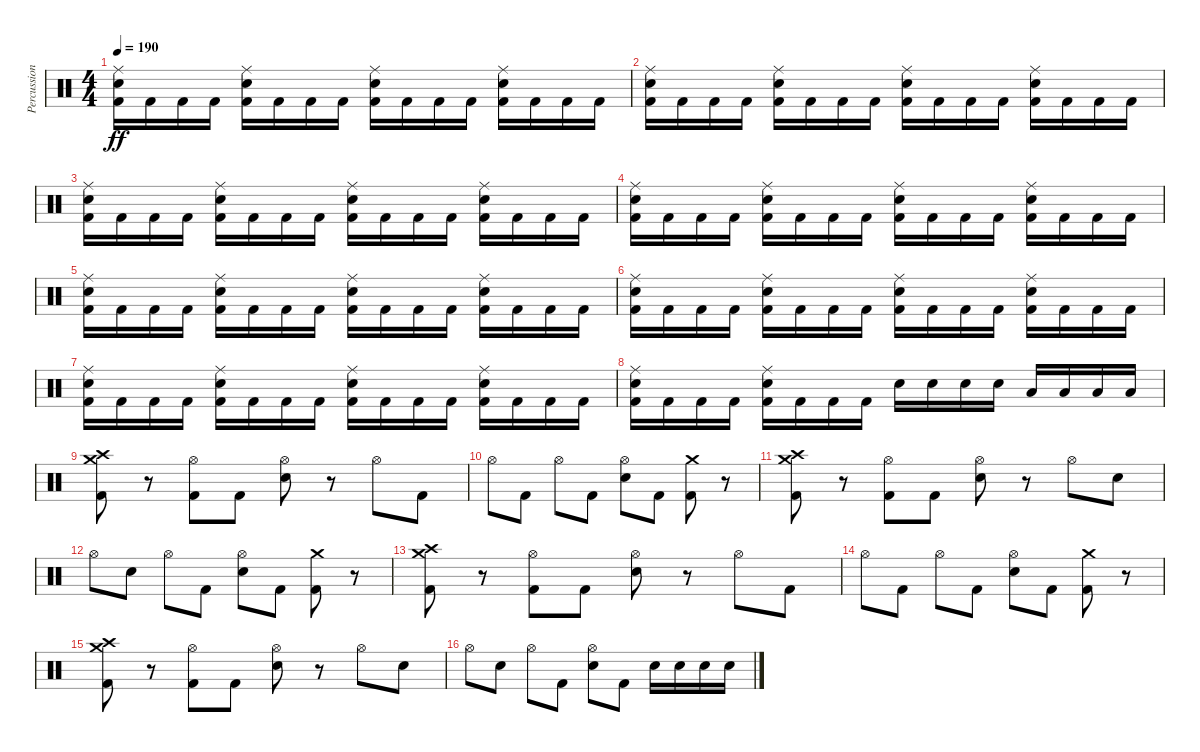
\track ("Percussion" "Percussion") {instrument percussion}
\staff {score}
\articulation defaults
\ts (4 4)
\tempo 190
\clef neutral
\ks c
("Kick (hit) 2" "Electric Snare (hit)" "Ride (middle)").16{dy ff} "Kick (hit) 2".16 "Kick (hit) 2".16 "Kick (hit) 2".16 ("Kick (hit) 2" "Electric Snare (hit)" "Ride (middle)").16 "Kick (hit) 2".16 "Kick (hit) 2".16 "Kick (hit) 2".16 ("Kick (hit) 2" "Electric Snare (hit)" "Ride (middle)").16 "Kick (hit) 2".16 "Kick (hit) 2".16 "Kick (hit) 2".16 ("Kick (hit) 2" "Electric Snare (hit)" "Ride (middle)").16 "Kick (hit) 2".16 "Kick (hit) 2".16 "Kick (hit) 2".16 |
("Kick (hit) 2" "Electric Snare (hit)" "Ride (middle)").16 "Kick (hit) 2".16 "Kick (hit) 2".16 "Kick (hit) 2".16 ("Kick (hit) 2" "Electric Snare (hit)" "Ride (middle)").16 "Kick (hit) 2".16 "Kick (hit) 2".16 "Kick (hit) 2".16 ("Kick (hit) 2" "Electric Snare (hit)" "Ride (middle)").16 "Kick (hit) 2".16 "Kick (hit) 2".16 "Kick (hit) 2".16 ("Kick (hit) 2" "Electric Snare (hit)" "Ride (middle)").16 "Kick (hit) 2".16 "Kick (hit) 2".16 "Kick (hit) 2".16 |
("Kick (hit) 2" "Electric Snare (hit)" "Ride (middle)").16 "Kick (hit) 2".16 "Kick (hit) 2".16 "Kick (hit) 2".16 ("Kick (hit) 2" "Electric Snare (hit)" "Ride (middle)").16 "Kick (hit) 2".16 "Kick (hit) 2".16 "Kick (hit) 2".16 ("Kick (hit) 2" "Electric Snare (hit)" "Ride (middle)").16 "Kick (hit) 2".16 "Kick (hit) 2".16 "Kick (hit) 2".16 ("Kick (hit) 2" "Electric Snare (hit)" "Ride (middle)").16 "Kick (hit) 2".16 "Kick (hit) 2".16 "Kick (hit) 2".16 |
("Kick (hit) 2" "Electric Snare (hit)" "Ride (middle)").16 "Kick (hit) 2".16 "Kick (hit) 2".16 "Kick (hit) 2".16 ("Kick (hit) 2" "Electric Snare (hit)" "Ride (middle)").16 "Kick (hit) 2".16 "Kick (hit) 2".16 "Kick (hit) 2".16 ("Kick (hit) 2" "Electric Snare (hit)" "Ride (middle)").16 "Kick (hit) 2".16 "Kick (hit) 2".16 "Kick (hit) 2".16 ("Kick (hit) 2" "Electric Snare (hit)" "Ride (middle)").16 "Kick (hit) 2".16 "Kick (hit) 2".16 "Kick (hit) 2".16 |
("Kick (hit) 2" "Electric Snare (hit)" "Ride (middle)").16 "Kick (hit) 2".16 "Kick (hit) 2".16 "Kick (hit) 2".16 ("Kick (hit) 2" "Electric Snare (hit)" "Ride (middle)").16 "Kick (hit) 2".16 "Kick (hit) 2".16 "Kick (hit) 2".16 ("Kick (hit) 2" "Electric Snare (hit)" "Ride (middle)").16 "Kick (hit) 2".16 "Kick (hit) 2".16 "Kick (hit) 2".16 ("Kick (hit) 2" "Electric Snare (hit)" "Ride (middle)").16 "Kick (hit) 2".16 "Kick (hit) 2".16 "Kick (hit) 2".16 |
("Kick (hit) 2" "Electric Snare (hit)" "Ride (middle)").16 "Kick (hit) 2".16 "Kick (hit) 2".16 "Kick (hit) 2".16 ("Kick (hit) 2" "Electric Snare (hit)" "Ride (middle)").16 "Kick (hit) 2".16 "Kick (hit) 2".16 "Kick (hit) 2".16 ("Kick (hit) 2" "Electric Snare (hit)" "Ride (middle)").16 "Kick (hit) 2".16 "Kick (hit) 2".16 "Kick (hit) 2".16 ("Kick (hit) 2" "Electric Snare (hit)" "Ride (middle)").16 "Kick (hit) 2".16 "Kick (hit) 2".16 "Kick (hit) 2".16 |
("Kick (hit) 2" "Electric Snare (hit)" "Ride (middle)").16 "Kick (hit) 2".16 "Kick (hit) 2".16 "Kick (hit) 2".16 ("Kick (hit) 2" "Electric Snare (hit)" "Ride (middle)").16 "Kick (hit) 2".16 "Kick (hit) 2".16 "Kick (hit) 2".16 ("Kick (hit) 2" "Electric Snare (hit)" "Ride (middle)").16 "Kick (hit) 2".16 "Kick (hit) 2".16 "Kick (hit) 2".16 ("Kick (hit) 2" "Electric Snare (hit)" "Ride (middle)").16 "Kick (hit) 2".16 "Kick (hit) 2".16 "Kick (hit) 2".16 |
("Kick (hit) 2" "Electric Snare (hit)" "Ride (middle)").16 "Kick (hit) 2".16 "Kick (hit) 2".16 "Kick (hit) 2".16 ("Kick (hit) 2" "Electric Snare (hit)" "Ride (middle)").16 "Kick (hit) 2".16 "Kick (hit) 2".16 "Kick (hit) 2".16 "Electric Snare (hit)".16 "Electric Snare (hit)".16 "Electric Snare (hit)".16 "Electric Snare (hit)".16 "Low Tom (hit)".16 "Low Tom (hit)".16 "Low Tom (hit)".16 "Low Tom (hit)".16 |
("Kick (hit) 2" "Crash high (hit)" "Crash medium (hit)").8 r.8 ("Kick (hit) 2" "Hi-Hat (open)").8 "Kick (hit) 2".8 ("Electric Snare (hit)" "Hi-Hat (open)").8 r.8 "Hi-Hat (open)".8 "Kick (hit) 2".8 |
"Hi-Hat (open)".8 "Kick (hit) 2".8 "Hi-Hat (open)".8 "Kick (hit) 2".8 ("Electric Snare (hit)" "Hi-Hat (open)").8 "Kick (hit) 2".8 ("Kick (hit) 2" "Crash medium (hit)").8 r.8 |
("Kick (hit) 2" "Crash high (hit)" "Crash medium (hit)").8 r.8 ("Kick (hit) 2" "Hi-Hat (open)").8 "Kick (hit) 2".8 ("Electric Snare (hit)" "Hi-Hat (open)").8 r.8 "Hi-Hat (open)".8 "Electric Snare (hit)".8 |
"Hi-Hat (open)".8 "Electric Snare (hit)".8 "Hi-Hat (open)".8 "Kick (hit) 2".8 ("Electric Snare (hit)" "Hi-Hat (open)").8 "Kick (hit) 2".8 ("Kick (hit) 2" "Crash medium (hit)").8 r.8 |
("Kick (hit) 2" "Crash high (hit)" "Crash medium (hit)").8 r.8 ("Kick (hit) 2" "Hi-Hat (open)").8 "Kick (hit) 2".8 ("Electric Snare (hit)" "Hi-Hat (open)").8 r.8 "Hi-Hat (open)".8 "Kick (hit) 2".8 |
"Hi-Hat (open)".8 "Kick (hit) 2".8 "Hi-Hat (open)".8 "Kick (hit) 2".8 ("Electric Snare (hit)" "Hi-Hat (open)").8 "Kick (hit) 2".8 ("Kick (hit) 2" "Crash medium (hit)").8 r.8 |
("Kick (hit) 2" "Crash high (hit)" "Crash medium (hit)").8 r.8 ("Kick (hit) 2" "Hi-Hat (open)").8 "Kick (hit) 2".8 ("Electric Snare (hit)" "Hi-Hat (open)").8 r.8 "Hi-Hat (open)".8 "Electric Snare (hit)".8 |
"Hi-Hat (open)".8 "Electric Snare (hit)".8 "Hi-Hat (open)".8 "Kick (hit) 2".8 ("Electric Snare (hit)" "Hi-Hat (open)").8 "Kick (hit) 2".8 "Electric Snare (hit)".16 "Electric Snare (hit)".16 "Electric Snare (hit)".16 "Electric Snare (hit)".16
